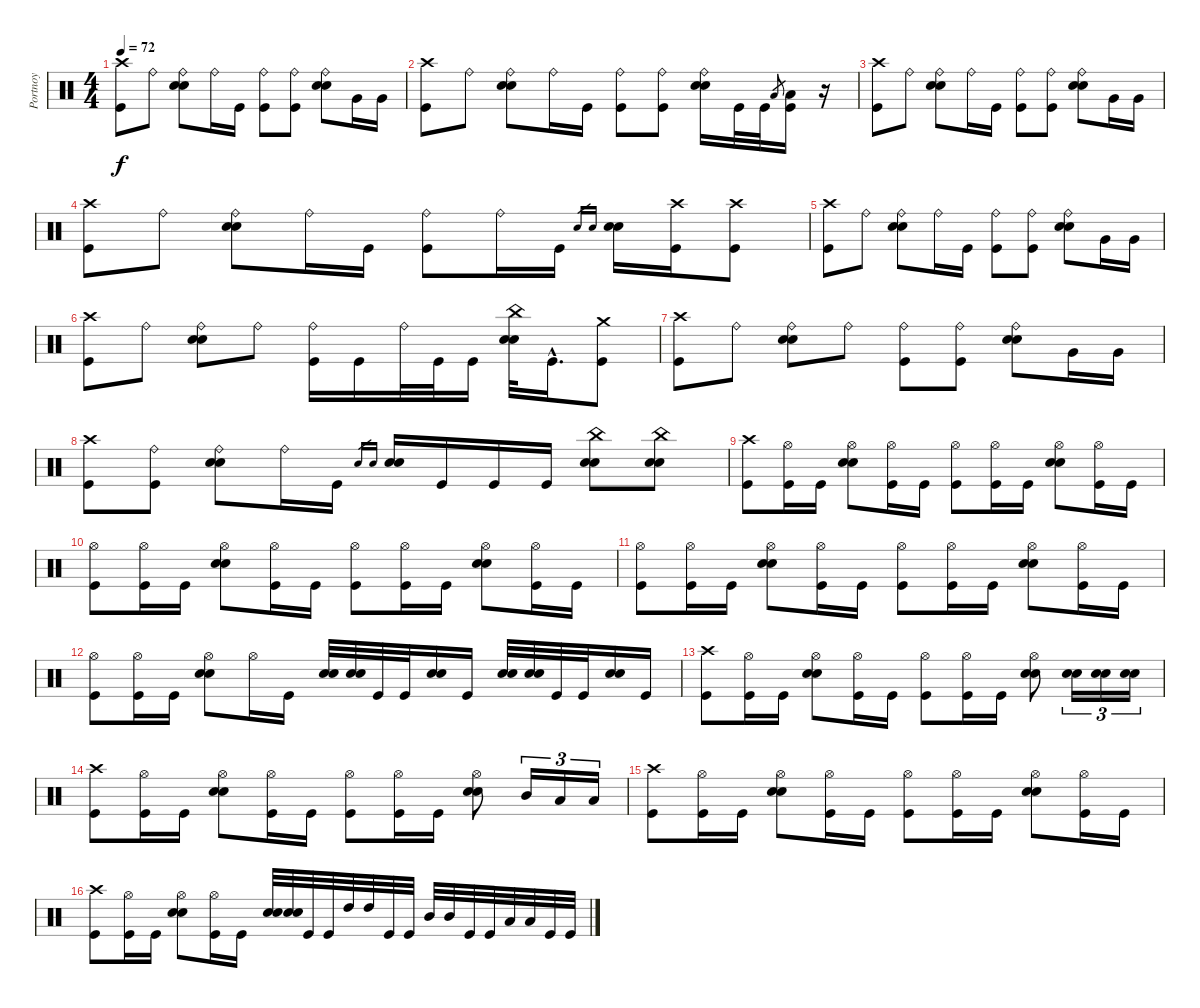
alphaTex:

\track ("Portnoy" "Portnoy") {instrument percussion}
\staff {score}
\articulation defaults
\ts (4 4)
\tempo 72
\clef neutral
\ks c
("Crash high (hit)" "Kick (hit)").8{dy f} "Ride (bell)".8 ("Ride (bell)" "Snare (hit) 2" "Electric Snare (hit)").8 "Ride (bell)".16 "Kick (hit)".16 ("Ride (bell)" "Kick (hit)").8 ("Ride (bell)" "Kick (hit)").8 ("Ride (bell)" "Snare (hit) 2" "Electric Snare (hit)").8 "Very Low Tom (hit)".16 "Very Low Tom (hit)".16 |
("Crash high (hit)" "Kick (hit)").8 "Ride (bell)".8 ("Ride (bell)" "Snare (hit) 2" "Electric Snare (hit)").8 "Ride (bell)".16 "Kick (hit)".16 ("Ride (bell)" "Kick (hit)").8 ("Ride (bell)" "Kick (hit)").8 ("Ride (bell)" "Snare (hit) 2" "Electric Snare (hit)").16 "Kick (hit)".32 "Kick (hit)".32 "Low Floor Tom (hit)".8{gr} ("Low Floor Tom (hit)" "Kick (hit)").16 r.16 |
("Crash high (hit)" "Kick (hit)").8 "Ride (bell)".8 ("Ride (bell)" "Snare (hit) 2" "Electric Snare (hit)").8 "Ride (bell)".16 "Kick (hit)".16 ("Ride (bell)" "Kick (hit)").8 ("Ride (bell)" "Kick (hit)").8 ("Ride (bell)" "Snare (hit) 2" "Electric Snare (hit)").8 "Very Low Tom (hit)".16 "Very Low Tom (hit)".16 |
("Crash high (hit)" "Kick (hit)").8 "Ride (bell)".8 ("Ride (bell)" "Snare (hit) 2" "Electric Snare (hit)").8 "Ride (bell)".16 "Kick (hit)".16 ("Ride (bell)" "Kick (hit)").8 "Ride (bell)".16 "Kick (hit)".16 "Snare (hit) 2".16{gr} "Electric Snare (hit)".16{gr} ("Snare (hit) 2" "Electric Snare (hit)").16 ("Crash high (hit)" "Kick (hit)").16 ("Crash high (hit)" "Kick (hit)").8 |
("Crash high (hit)" "Kick (hit)").8 "Ride (bell)".8 ("Ride (bell)" "Snare (hit) 2" "Electric Snare (hit)").8 "Ride (bell)".16 "Kick (hit)".16 ("Ride (bell)" "Kick (hit)").8 ("Ride (bell)" "Kick (hit)").8 ("Ride (bell)" "Snare (hit) 2" "Electric Snare (hit)").8 "Very Low Tom (hit)".16 "Very Low Tom (hit)".16 |
("Crash high (hit)" "Kick (hit)").8 "Ride (bell)".8 ("Ride (bell)" "Snare (hit) 2" "Electric Snare (hit)").8 "Ride (bell)".8 ("Ride (bell)" "Kick (hit)").16 "Kick (hit)".16 "Ride (bell)".32 "Kick (hit)".32 "Kick (hit)".16 ("China (hit)" "Snare (hit) 2" "Electric Snare (hit)").32 "Kick (hit)"{hac}.16{d} ("Crash medium (hit)" "Kick (hit)").8 |
("Crash high (hit)" "Kick (hit)").8 "Ride (bell)".8 ("Ride (bell)" "Snare (hit) 2" "Electric Snare (hit)").8 "Ride (bell)".8 ("Ride (bell)" "Kick (hit)").8 ("Ride (bell)" "Kick (hit)").8 ("Ride (bell)" "Snare (hit) 2" "Electric Snare (hit)").8 "Very Low Tom (hit)".16 "Very Low Tom (hit)".16 |
("Crash high (hit)" "Kick (hit)").8 ("Ride (bell)" "Kick (hit)").8 ("Ride (bell)" "Snare (hit) 2" "Electric Snare (hit)").8 "Ride (bell)".16 "Kick (hit)".16 "Snare (hit) 2".16{gr} "Electric Snare (hit)".16{gr} ("Snare (hit) 2" "Electric Snare (hit)").16 "Kick (hit)".16 "Kick (hit)".16 "Kick (hit)".16 ("China (hit)" "Snare (hit) 2" "Electric Snare (hit)").8 ("China (hit)" "Snare (hit) 2" "Electric Snare (hit)").8 |
("Crash high (hit)" "Kick (hit)").8 ("Hi-Hat (open)" "Kick (hit)").16 "Kick (hit)".16 ("Hi-Hat (open)" "Snare (hit) 2" "Electric Snare (hit)").8 ("Hi-Hat (open)" "Kick (hit)").16 "Kick (hit)".16 ("Hi-Hat (open)" "Kick (hit)").8 ("Hi-Hat (open)" "Kick (hit)").16 "Kick (hit)".16 ("Hi-Hat (open)" "Snare (hit) 2" "Electric Snare (hit)").8 ("Hi-Hat (open)" "Kick (hit)").16 "Kick (hit)".16 |
("Hi-Hat (open)" "Kick (hit)").8 ("Hi-Hat (open)" "Kick (hit)").16 "Kick (hit)".16 ("Hi-Hat (open)" "Snare (hit) 2" "Electric Snare (hit)").8 ("Hi-Hat (open)" "Kick (hit)").16 "Kick (hit)".16 ("Hi-Hat (open)" "Kick (hit)").8 ("Hi-Hat (open)" "Kick (hit)").16 "Kick (hit)".16 ("Hi-Hat (open)" "Snare (hit) 2" "Electric Snare (hit)").8 ("Hi-Hat (open)" "Kick (hit)").16 "Kick (hit)".16 |
("Hi-Hat (open)" "Kick (hit)").8 ("Hi-Hat (open)" "Kick (hit)").16 "Kick (hit)".16 ("Hi-Hat (open)" "Snare (hit) 2" "Electric Snare (hit)").8 ("Hi-Hat (open)" "Kick (hit)").16 "Kick (hit)".16 ("Hi-Hat (open)" "Kick (hit)").8 ("Hi-Hat (open)" "Kick (hit)").16 "Kick (hit)".16 ("Hi-Hat (open)" "Snare (hit) 2" "Electric Snare (hit)").8 ("Hi-Hat (open)" "Kick (hit)").16 "Kick (hit)".16 |
("Hi-Hat (open)" "Kick (hit)").8 ("Hi-Hat (open)" "Kick (hit)").16 "Kick (hit)".16 ("Hi-Hat (open)" "Snare (hit) 2" "Electric Snare (hit)").8 "Hi-Hat (open)".16 "Kick (hit)".16 ("Snare (hit) 2" "Electric Snare (hit)").32 ("Snare (hit) 2" "Electric Snare (hit)").32 "Kick (hit)".32 "Kick (hit)".32 ("Snare (hit) 2" "Electric Snare (hit)").16 "Kick (hit)".16 ("Snare (hit) 2" "Electric Snare (hit)").32 ("Snare (hit) 2" "Electric Snare (hit)").32 "Kick (hit)".32 "Kick (hit)".32 ("Snare (hit) 2" "Electric Snare (hit)").16 "Kick (hit)".16 |
("Crash high (hit)" "Kick (hit)").8 ("Hi-Hat (open)" "Kick (hit)").16 "Kick (hit)".16 ("Hi-Hat (open)" "Snare (hit) 2" "Electric Snare (hit)").8 ("Hi-Hat (open)" "Kick (hit)").16 "Kick (hit)".16 ("Hi-Hat (open)" "Kick (hit)").8 ("Hi-Hat (open)" "Kick (hit)").16 "Kick (hit)".16 ("Hi-Hat (open)" "Snare (hit) 2" "Electric Snare (hit)").8 ("Snare (hit) 2" "Electric Snare (hit)").16{tu (3 2)} ("Snare (hit) 2" "Electric Snare (hit)").16{tu (3 2)} ("Snare (hit) 2" "Electric Snare (hit)").16{tu (3 2)} |
("Crash high (hit)" "Kick (hit)").8 ("Hi-Hat (open)" "Kick (hit)").16 "Kick (hit)".16 ("Hi-Hat (open)" "Snare (hit) 2" "Electric Snare (hit)").8 ("Hi-Hat (open)" "Kick (hit)").16 "Kick (hit)".16 ("Hi-Hat (open)" "Kick (hit)").8 ("Hi-Hat (open)" "Kick (hit)").16 "Kick (hit)".16 ("Hi-Hat (open)" "Snare (hit) 2" "Electric Snare (hit)").8 "Mid Tom (hit)".16{tu (3 2)} "Low Tom (hit)".16{tu (3 2)} "Low Floor Tom (hit)".16{tu (3 2)} |
("Crash high (hit)" "Kick (hit)").8 ("Hi-Hat (open)" "Kick (hit)").16 "Kick (hit)".16 ("Hi-Hat (open)" "Snare (hit) 2" "Electric Snare (hit)").8 ("Hi-Hat (open)" "Kick (hit)").16 "Kick (hit)".16 ("Hi-Hat (open)" "Kick (hit)").8 ("Hi-Hat (open)" "Kick (hit)").16 "Kick (hit)".16 ("Hi-Hat (open)" "Snare (hit) 2" "Electric Snare (hit)").8 ("Hi-Hat (open)" "Kick (hit)").16 "Kick (hit)".16 |
("Crash high (hit)" "Kick (hit)").8 ("Hi-Hat (open)" "Kick (hit)").16 "Kick (hit)".16 ("Hi-Hat (open)" "Snare (hit) 2" "Electric Snare (hit)").8 ("Hi-Hat (open)" "Kick (hit)").16 "Kick (hit)".16 ("Snare (hit) 2" "Electric Snare (hit)").32 ("Snare (hit) 2" "Electric Snare (hit)").32 "Kick (hit)".32 "Kick (hit)".32 "High Tom (hit)".32 "High Tom (hit)".32 "Kick (hit)".32 "Kick (hit)".32 "Mid Tom (hit)".32 "Mid Tom (hit)".32 "Kick (hit)".32 "Kick (hit)".32 "Low Tom (hit)".32 "Low Tom (hit)".32 "Kick (hit)".32 "Kick (hit)".32
